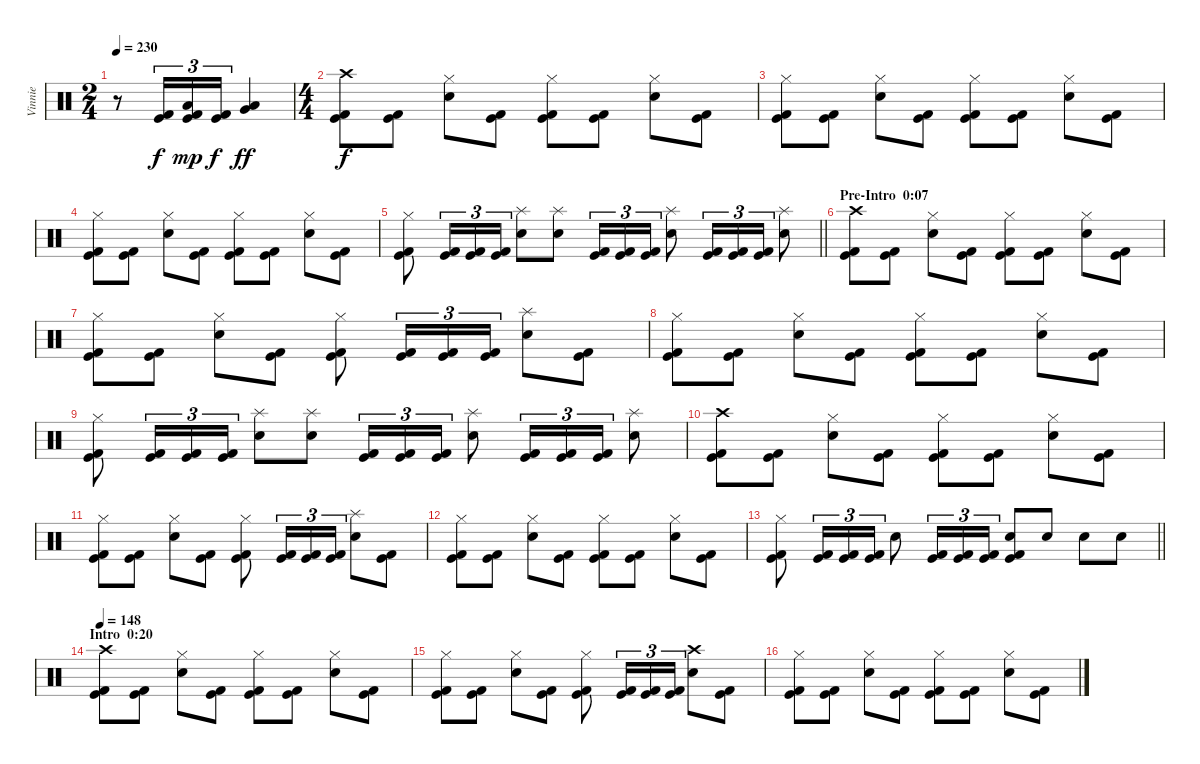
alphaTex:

\track ("Vinnie" "Vinnie") {instrument percussion}
\staff {score}
\articulation defaults
\ts (2 4)
\tempo 230
\tempo 150
\tempo 230
\clef neutral
\ks c
r.8{dy f} ("Kick (hit)" "Kick (hit) 2").16{tu (3 2)} ("Low Floor Tom (hit)" "Kick (hit)" "Kick (hit) 2").16{tu (3 2) dy mp} ("Kick (hit)" "Kick (hit) 2").16{tu (3 2) dy f} ("Low Tom (hit)" "Very Low Tom (hit)").4{dy ff} |
\ts (4 4)
("Crash high (hit)" "Kick (hit)" "Kick (hit) 2").8{dy f} ("Kick (hit)" "Kick (hit) 2").8 ("Hi-Hat (closed)" "Electric Snare (hit)").8 ("Kick (hit)" "Kick (hit) 2").8 ("Hi-Hat (closed)" "Kick (hit)" "Kick (hit) 2").8 ("Kick (hit)" "Kick (hit) 2").8 ("Hi-Hat (closed)" "Electric Snare (hit)").8 ("Kick (hit)" "Kick (hit) 2").8 |
("Hi-Hat (closed)" "Kick (hit)" "Kick (hit) 2").8 ("Kick (hit)" "Kick (hit) 2").8 ("Hi-Hat (closed)" "Electric Snare (hit)").8 ("Kick (hit)" "Kick (hit) 2").8 ("Hi-Hat (closed)" "Kick (hit)" "Kick (hit) 2").8 ("Kick (hit)" "Kick (hit) 2").8 ("Hi-Hat (closed)" "Electric Snare (hit)").8 ("Kick (hit)" "Kick (hit) 2").8 |
("Hi-Hat (closed)" "Kick (hit)" "Kick (hit) 2").8 ("Kick (hit)" "Kick (hit) 2").8 ("Hi-Hat (closed)" "Electric Snare (hit)").8 ("Kick (hit)" "Kick (hit) 2").8 ("Hi-Hat (closed)" "Kick (hit)" "Kick (hit) 2").8 ("Kick (hit)" "Kick (hit) 2").8 ("Hi-Hat (closed)" "Electric Snare (hit)").8 ("Kick (hit)" "Kick (hit) 2").8 |
\barLineRight lightlight
("Hi-Hat (closed)" "Kick (hit)" "Kick (hit) 2").8 ("Kick (hit)" "Kick (hit) 2").16{tu (3 2)} ("Kick (hit)" "Kick (hit) 2").16{tu (3 2)} ("Kick (hit)" "Kick (hit) 2").16{tu (3 2)} ("Splash (hit)" "Electric Snare (hit)").8 ("Splash (hit)" "Electric Snare (hit)").8 ("Kick (hit)" "Kick (hit) 2").16{tu (3 2)} ("Kick (hit)" "Kick (hit) 2").16{tu (3 2)} ("Kick (hit)" "Kick (hit) 2").16{tu (3 2)} ("Splash (hit)" "Electric Snare (hit)").8 ("Kick (hit)" "Kick (hit) 2").16{tu (3 2)} ("Kick (hit)" "Kick (hit) 2").16{tu (3 2)} ("Kick (hit)" "Kick (hit) 2").16{tu (3 2)} ("Splash (hit)" "Electric Snare (hit)").8 |
\section ("" "Pre-Intro  0:07")
("Crash high (hit)" "Kick (hit)" "Kick (hit) 2").8 ("Kick (hit)" "Kick (hit) 2").8 ("Hi-Hat (closed)" "Electric Snare (hit)").8 ("Kick (hit)" "Kick (hit) 2").8 ("Hi-Hat (closed)" "Kick (hit)" "Kick (hit) 2").8 ("Kick (hit)" "Kick (hit) 2").8 ("Hi-Hat (closed)" "Electric Snare (hit)").8 ("Kick (hit)" "Kick (hit) 2").8 |
("Hi-Hat (closed)" "Kick (hit)" "Kick (hit) 2").8 ("Kick (hit)" "Kick (hit) 2").8 ("Hi-Hat (closed)" "Electric Snare (hit)").8 ("Kick (hit)" "Kick (hit) 2").8 ("Hi-Hat (closed)" "Kick (hit)" "Kick (hit) 2").8 ("Kick (hit)" "Kick (hit) 2").16{tu (3 2)} ("Kick (hit)" "Kick (hit) 2").16{tu (3 2)} ("Kick (hit)" "Kick (hit) 2").16{tu (3 2)} ("Splash (hit)" "Electric Snare (hit)").8 ("Kick (hit)" "Kick (hit) 2").8 |
("Hi-Hat (closed)" "Kick (hit)" "Kick (hit) 2").8 ("Kick (hit)" "Kick (hit) 2").8 ("Hi-Hat (closed)" "Electric Snare (hit)").8 ("Kick (hit)" "Kick (hit) 2").8 ("Hi-Hat (closed)" "Kick (hit)" "Kick (hit) 2").8 ("Kick (hit)" "Kick (hit) 2").8 ("Hi-Hat (closed)" "Electric Snare (hit)").8 ("Kick (hit)" "Kick (hit) 2").8 |
("Hi-Hat (closed)" "Kick (hit)" "Kick (hit) 2").8 ("Kick (hit)" "Kick (hit) 2").16{tu (3 2)} ("Kick (hit)" "Kick (hit) 2").16{tu (3 2)} ("Kick (hit)" "Kick (hit) 2").16{tu (3 2)} ("Splash (hit)" "Electric Snare (hit)").8 ("Splash (hit)" "Electric Snare (hit)").8 ("Kick (hit)" "Kick (hit) 2").16{tu (3 2)} ("Kick (hit)" "Kick (hit) 2").16{tu (3 2)} ("Kick (hit)" "Kick (hit) 2").16{tu (3 2)} ("Splash (hit)" "Electric Snare (hit)").8 ("Kick (hit)" "Kick (hit) 2").16{tu (3 2)} ("Kick (hit)" "Kick (hit) 2").16{tu (3 2)} ("Kick (hit)" "Kick (hit) 2").16{tu (3 2)} ("Splash (hit)" "Electric Snare (hit)").8 |
("Crash high (hit)" "Kick (hit)" "Kick (hit) 2").8 ("Kick (hit)" "Kick (hit) 2").8 ("Hi-Hat (closed)" "Electric Snare (hit)").8 ("Kick (hit)" "Kick (hit) 2").8 ("Hi-Hat (closed)" "Kick (hit)" "Kick (hit) 2").8 ("Kick (hit)" "Kick (hit) 2").8 ("Hi-Hat (closed)" "Electric Snare (hit)").8 ("Kick (hit)" "Kick (hit) 2").8 |
("Hi-Hat (closed)" "Kick (hit)" "Kick (hit) 2").8 ("Kick (hit)" "Kick (hit) 2").8 ("Hi-Hat (closed)" "Electric Snare (hit)").8 ("Kick (hit)" "Kick (hit) 2").8 ("Hi-Hat (closed)" "Kick (hit)" "Kick (hit) 2").8 ("Kick (hit)" "Kick (hit) 2").16{tu (3 2)} ("Kick (hit)" "Kick (hit) 2").16{tu (3 2)} ("Kick (hit)" "Kick (hit) 2").16{tu (3 2)} ("Splash (hit)" "Electric Snare (hit)").8 ("Kick (hit)" "Kick (hit) 2").8 |
("Hi-Hat (closed)" "Kick (hit)" "Kick (hit) 2").8 ("Kick (hit)" "Kick (hit) 2").8 ("Hi-Hat (closed)" "Electric Snare (hit)").8 ("Kick (hit)" "Kick (hit) 2").8 ("Hi-Hat (closed)" "Kick (hit)" "Kick (hit) 2").8 ("Kick (hit)" "Kick (hit) 2").8 ("Hi-Hat (closed)" "Electric Snare (hit)").8 ("Kick (hit)" "Kick (hit) 2").8 |
\barLineRight lightlight
("Hi-Hat (closed)" "Kick (hit)" "Kick (hit) 2").8 ("Kick (hit)" "Kick (hit) 2").16{tu (3 2)} ("Kick (hit)" "Kick (hit) 2").16{tu (3 2)} ("Kick (hit)" "Kick (hit) 2").16{tu (3 2)} "Electric Snare (hit)".8 ("Kick (hit)" "Kick (hit) 2").16{tu (3 2)} ("Kick (hit)" "Kick (hit) 2").16{tu (3 2)} ("Kick (hit)" "Kick (hit) 2").16{tu (3 2)} ("Electric Snare (hit)" "Kick (hit)" "Kick (hit) 2").8{bd 30} "Electric Snare (hit)".8 "Electric Snare (hit)".8 "Electric Snare (hit)".8 |
\section ("" "Intro  0:20")
\tempo 148
("Crash high (hit)" "Kick (hit)" "Kick (hit) 2").8 ("Kick (hit)" "Kick (hit) 2").8 ("Hi-Hat (closed)" "Electric Snare (hit)").8 ("Kick (hit)" "Kick (hit) 2").8 ("Hi-Hat (closed)" "Kick (hit)" "Kick (hit) 2").8 ("Kick (hit)" "Kick (hit) 2").8 ("Hi-Hat (closed)" "Electric Snare (hit)").8 ("Kick (hit)" "Kick (hit) 2").8 |
("Hi-Hat (closed)" "Kick (hit)" "Kick (hit) 2").8 ("Kick (hit)" "Kick (hit) 2").8 ("Hi-Hat (closed)" "Electric Snare (hit)").8 ("Kick (hit)" "Kick (hit) 2").8 ("Hi-Hat (closed)" "Kick (hit)" "Kick (hit) 2").8 ("Kick (hit)" "Kick (hit) 2").16{tu (3 2)} ("Kick (hit)" "Kick (hit) 2").16{tu (3 2)} ("Kick (hit)" "Kick (hit) 2").16{tu (3 2)} ("Crash high (hit)" "Electric Snare (hit)").8 ("Kick (hit)" "Kick (hit) 2").8 |
("Hi-Hat (closed)" "Kick (hit)" "Kick (hit) 2").8 ("Kick (hit)" "Kick (hit) 2").8 ("Hi-Hat (closed)" "Electric Snare (hit)").8 ("Kick (hit)" "Kick (hit) 2").8 ("Hi-Hat (closed)" "Kick (hit)" "Kick (hit) 2").8 ("Kick (hit)" "Kick (hit) 2").8 ("Hi-Hat (closed)" "Electric Snare (hit)").8 ("Kick (hit)" "Kick (hit) 2").8
